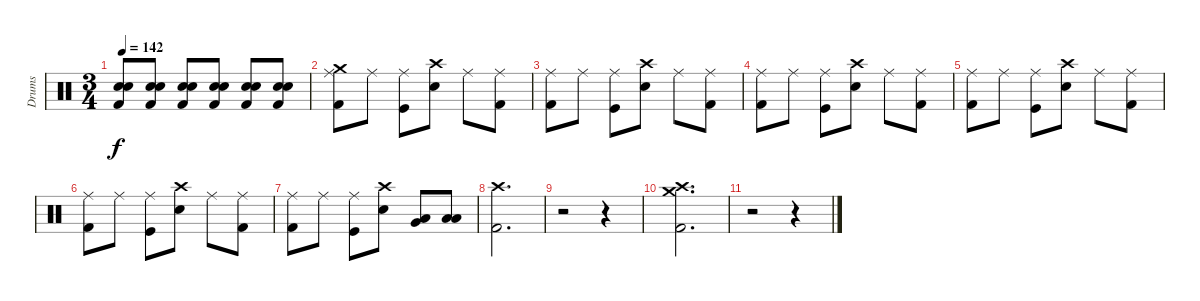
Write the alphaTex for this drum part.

\track ("Drums" "Drums") {instrument percussion}
\staff {score}
\articulation defaults
\ts (3 4)
\tempo 142
\clef neutral
\ks c
("Electric Snare (hit)" "Snare (hit) 2" "Kick (hit) 2").8{dy f} ("Electric Snare (hit)" "Snare (hit) 2" "Kick (hit) 2").8 ("Electric Snare (hit)" "Snare (hit) 2" "Kick (hit) 2").8 ("Electric Snare (hit)" "Snare (hit) 2" "Kick (hit) 2").8 ("Electric Snare (hit)" "Snare (hit) 2" "Kick (hit) 2").8 ("Electric Snare (hit)" "Snare (hit) 2" "Kick (hit) 2").8 |
("Ride (middle)" "Crash medium (hit)" "Kick (hit) 2").8 "Ride (middle)".8 ("Ride (middle)" "Kick (hit)").8 ("Crash high (hit)" "Electric Snare (hit)").8 "Ride (middle)".8 ("Ride (middle)" "Kick (hit) 2").8 |
("Ride (middle)" "Kick (hit) 2").8 "Ride (middle)".8 ("Ride (middle)" "Kick (hit)").8 ("Crash high (hit)" "Electric Snare (hit)").8 "Ride (middle)".8 ("Ride (middle)" "Kick (hit) 2").8 |
("Ride (middle)" "Kick (hit) 2").8 "Ride (middle)".8 ("Ride (middle)" "Kick (hit)").8 ("Crash high (hit)" "Electric Snare (hit)").8 "Ride (middle)".8 ("Ride (middle)" "Kick (hit) 2").8 |
("Ride (middle)" "Kick (hit) 2").8 "Ride (middle)".8 ("Ride (middle)" "Kick (hit)").8 ("Crash high (hit)" "Electric Snare (hit)").8 "Ride (middle)".8 ("Ride (middle)" "Kick (hit) 2").8 |
("Ride (middle)" "Kick (hit) 2").8 "Ride (middle)".8 ("Ride (middle)" "Kick (hit)").8 ("Crash high (hit)" "Electric Snare (hit)").8 "Ride (middle)".8 ("Ride (middle)" "Kick (hit) 2").8 |
("Ride (middle)" "Kick (hit) 2").8 "Ride (middle)".8 ("Ride (middle)" "Kick (hit)").8 ("Crash high (hit)" "Electric Snare (hit)").8 ("Low Tom (hit)" "Very Low Tom (hit)").8 ("Low Tom (hit)" "Low Floor Tom (hit)").8 |
("Crash high (hit)" "Kick (hit) 2").2{d} |
r.2 r.4 |
("Crash high (hit)" "Crash medium (hit)" "Kick (hit) 2").2{d} |
r.2 r.4
